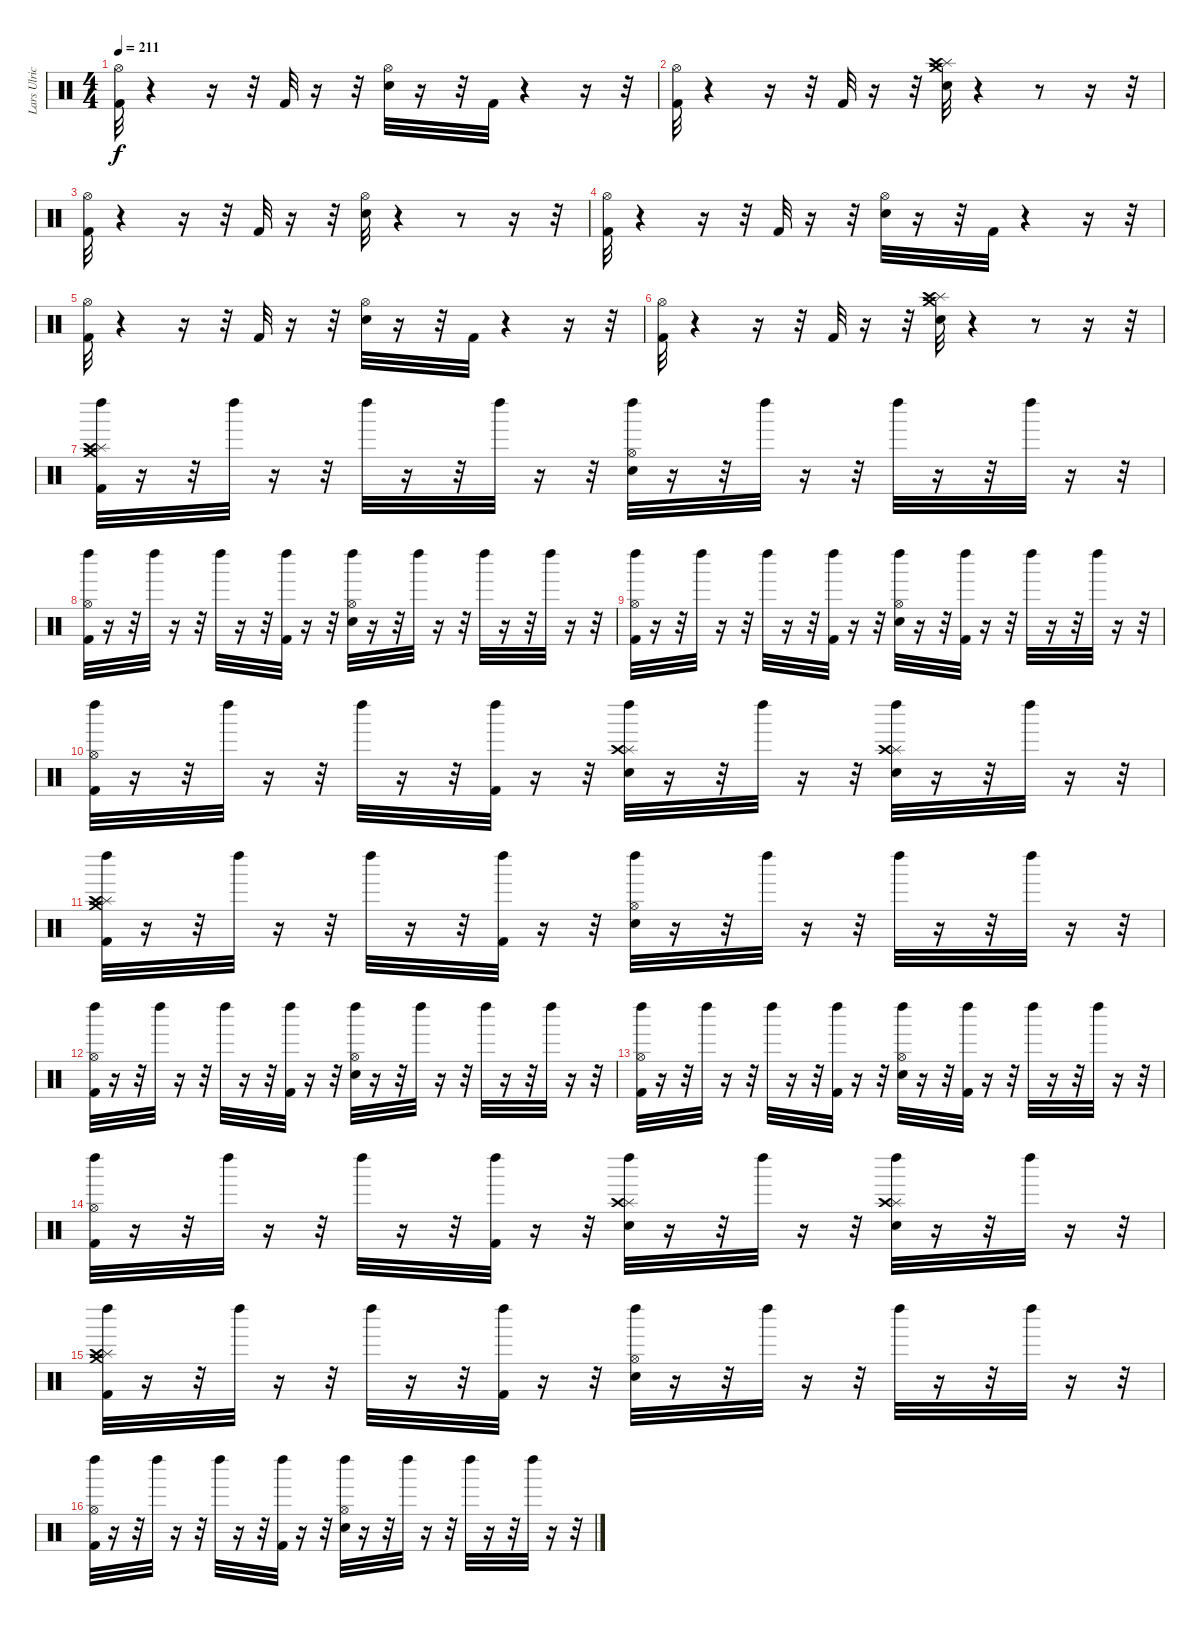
\track ("Lars Ulrich (Drums)" "Lars Ulric") {instrument percussion}
\staff {score}
\articulation defaults
\ts (4 4)
\tempo 211
\clef neutral
\ks c
("Kick (hit) 2" "Hi-Hat (open)").32{dy f} r.4 r.16 r.32 "Kick (hit) 2".32 r.16 r.32 ("Snare (hit) 2" "Hi-Hat (open)").32 r.16 r.32 "Kick (hit) 2".32 r.4 r.16 r.32 |
("Kick (hit) 2" "Hi-Hat (open)").32 r.4 r.16 r.32 "Kick (hit) 2".32 r.16 r.32 ("Splash (hit)" "Crash medium (hit)" "Crash high (hit)" "Snare (hit) 2").32 r.4 r.8 r.16 r.32 |
("Kick (hit) 2" "Hi-Hat (open)").32 r.4 r.16 r.32 "Kick (hit) 2".32 r.16 r.32 ("Snare (hit) 2" "Hi-Hat (open)").32 r.4 r.8 r.16 r.32 |
("Kick (hit) 2" "Hi-Hat (open)").32 r.4 r.16 r.32 "Kick (hit) 2".32 r.16 r.32 ("Snare (hit) 2" "Hi-Hat (open)").32 r.16 r.32 "Kick (hit) 2".32 r.4 r.16 r.32 |
("Kick (hit) 2" "Hi-Hat (open)").32 r.4 r.16 r.32 "Kick (hit) 2".32 r.16 r.32 ("Snare (hit) 2" "Hi-Hat (open)").32 r.16 r.32 "Kick (hit) 2".32 r.4 r.16 r.32 |
("Kick (hit) 2" "Hi-Hat (open)").32 r.4 r.16 r.32 "Kick (hit) 2".32 r.16 r.32 ("Splash (hit)" "Crash medium (hit)" "Crash high (hit)" "Snare (hit) 2").32 r.4 r.8 r.16 r.32 |
("Left Maraca (hit)" "Crash medium (hit)" "Splash (hit)" "Crash high (hit)" "Kick (hit) 2").32 r.16 r.32 "Left Maraca (hit)".32 r.16 r.32 "Left Maraca (hit)".32 r.16 r.32 "Left Maraca (hit)".32 r.16 r.32 ("Left Maraca (hit)" "Hi-Hat (open)" "Snare (hit) 2").32 r.16 r.32 "Left Maraca (hit)".32 r.16 r.32 "Left Maraca (hit)".32 r.16 r.32 "Left Maraca (hit)".32 r.16 r.32 |
("Left Maraca (hit)" "Hi-Hat (open)" "Kick (hit) 2").32 r.16 r.32 "Left Maraca (hit)".32 r.16 r.32 "Left Maraca (hit)".32 r.16 r.32 ("Left Maraca (hit)" "Kick (hit) 2").32 r.16 r.32 ("Left Maraca (hit)" "Hi-Hat (open)" "Snare (hit) 2").32 r.16 r.32 "Left Maraca (hit)".32 r.16 r.32 "Left Maraca (hit)".32 r.16 r.32 "Left Maraca (hit)".32 r.16 r.32 |
("Left Maraca (hit)" "Hi-Hat (open)" "Kick (hit) 2").32 r.16 r.32 "Left Maraca (hit)".32 r.16 r.32 "Left Maraca (hit)".32 r.16 r.32 ("Left Maraca (hit)" "Kick (hit) 2").32 r.16 r.32 ("Left Maraca (hit)" "Hi-Hat (open)" "Snare (hit) 2").32 r.16 r.32 ("Kick (hit) 2" "Left Maraca (hit)").32 r.16 r.32 "Left Maraca (hit)".32 r.16 r.32 "Left Maraca (hit)".32 r.16 r.32 |
("Left Maraca (hit)" "Hi-Hat (open)" "Kick (hit) 2").32 r.16 r.32 "Left Maraca (hit)".32 r.16 r.32 "Left Maraca (hit)".32 r.16 r.32 ("Left Maraca (hit)" "Kick (hit) 2").32 r.16 r.32 ("Splash (hit)" "Crash high (hit)" "Left Maraca (hit)" "Snare (hit) 2").32 r.16 r.32 "Left Maraca (hit)".32 r.16 r.32 ("Splash (hit)" "Crash high (hit)" "Snare (hit) 2" "Left Maraca (hit)").32 r.16 r.32 "Left Maraca (hit)".32 r.16 r.32 |
("Left Maraca (hit)" "Crash medium (hit)" "Splash (hit)" "Crash high (hit)" "Kick (hit) 2").32 r.16 r.32 "Left Maraca (hit)".32 r.16 r.32 "Left Maraca (hit)".32 r.16 r.32 ("Kick (hit) 2" "Left Maraca (hit)").32 r.16 r.32 ("Left Maraca (hit)" "Hi-Hat (open)" "Snare (hit) 2").32 r.16 r.32 "Left Maraca (hit)".32 r.16 r.32 "Left Maraca (hit)".32 r.16 r.32 "Left Maraca (hit)".32 r.16 r.32 |
("Left Maraca (hit)" "Hi-Hat (open)" "Kick (hit) 2").32 r.16 r.32 "Left Maraca (hit)".32 r.16 r.32 "Left Maraca (hit)".32 r.16 r.32 ("Left Maraca (hit)" "Kick (hit) 2").32 r.16 r.32 ("Left Maraca (hit)" "Hi-Hat (open)" "Snare (hit) 2").32 r.16 r.32 "Left Maraca (hit)".32 r.16 r.32 "Left Maraca (hit)".32 r.16 r.32 "Left Maraca (hit)".32 r.16 r.32 |
("Left Maraca (hit)" "Hi-Hat (open)" "Kick (hit) 2").32 r.16 r.32 "Left Maraca (hit)".32 r.16 r.32 "Left Maraca (hit)".32 r.16 r.32 ("Left Maraca (hit)" "Kick (hit) 2").32 r.16 r.32 ("Left Maraca (hit)" "Hi-Hat (open)" "Snare (hit) 2").32 r.16 r.32 ("Kick (hit) 2" "Left Maraca (hit)").32 r.16 r.32 "Left Maraca (hit)".32 r.16 r.32 "Left Maraca (hit)".32 r.16 r.32 |
("Left Maraca (hit)" "Hi-Hat (open)" "Kick (hit) 2").32 r.16 r.32 "Left Maraca (hit)".32 r.16 r.32 "Left Maraca (hit)".32 r.16 r.32 ("Left Maraca (hit)" "Kick (hit) 2").32 r.16 r.32 ("Splash (hit)" "Crash high (hit)" "Left Maraca (hit)" "Snare (hit) 2").32 r.16 r.32 "Left Maraca (hit)".32 r.16 r.32 ("Splash (hit)" "Crash high (hit)" "Snare (hit) 2" "Left Maraca (hit)").32 r.16 r.32 "Left Maraca (hit)".32 r.16 r.32 |
("Left Maraca (hit)" "Crash medium (hit)" "Splash (hit)" "Crash high (hit)" "Kick (hit) 2").32 r.16 r.32 "Left Maraca (hit)".32 r.16 r.32 "Left Maraca (hit)".32 r.16 r.32 ("Kick (hit) 2" "Left Maraca (hit)").32 r.16 r.32 ("Left Maraca (hit)" "Hi-Hat (open)" "Snare (hit) 2").32 r.16 r.32 "Left Maraca (hit)".32 r.16 r.32 "Left Maraca (hit)".32 r.16 r.32 "Left Maraca (hit)".32 r.16 r.32 |
("Left Maraca (hit)" "Hi-Hat (open)" "Kick (hit) 2").32 r.16 r.32 "Left Maraca (hit)".32 r.16 r.32 "Left Maraca (hit)".32 r.16 r.32 ("Left Maraca (hit)" "Kick (hit) 2").32 r.16 r.32 ("Left Maraca (hit)" "Hi-Hat (open)" "Snare (hit) 2").32 r.16 r.32 "Left Maraca (hit)".32 r.16 r.32 "Left Maraca (hit)".32 r.16 r.32 "Left Maraca (hit)".32 r.16 r.32
